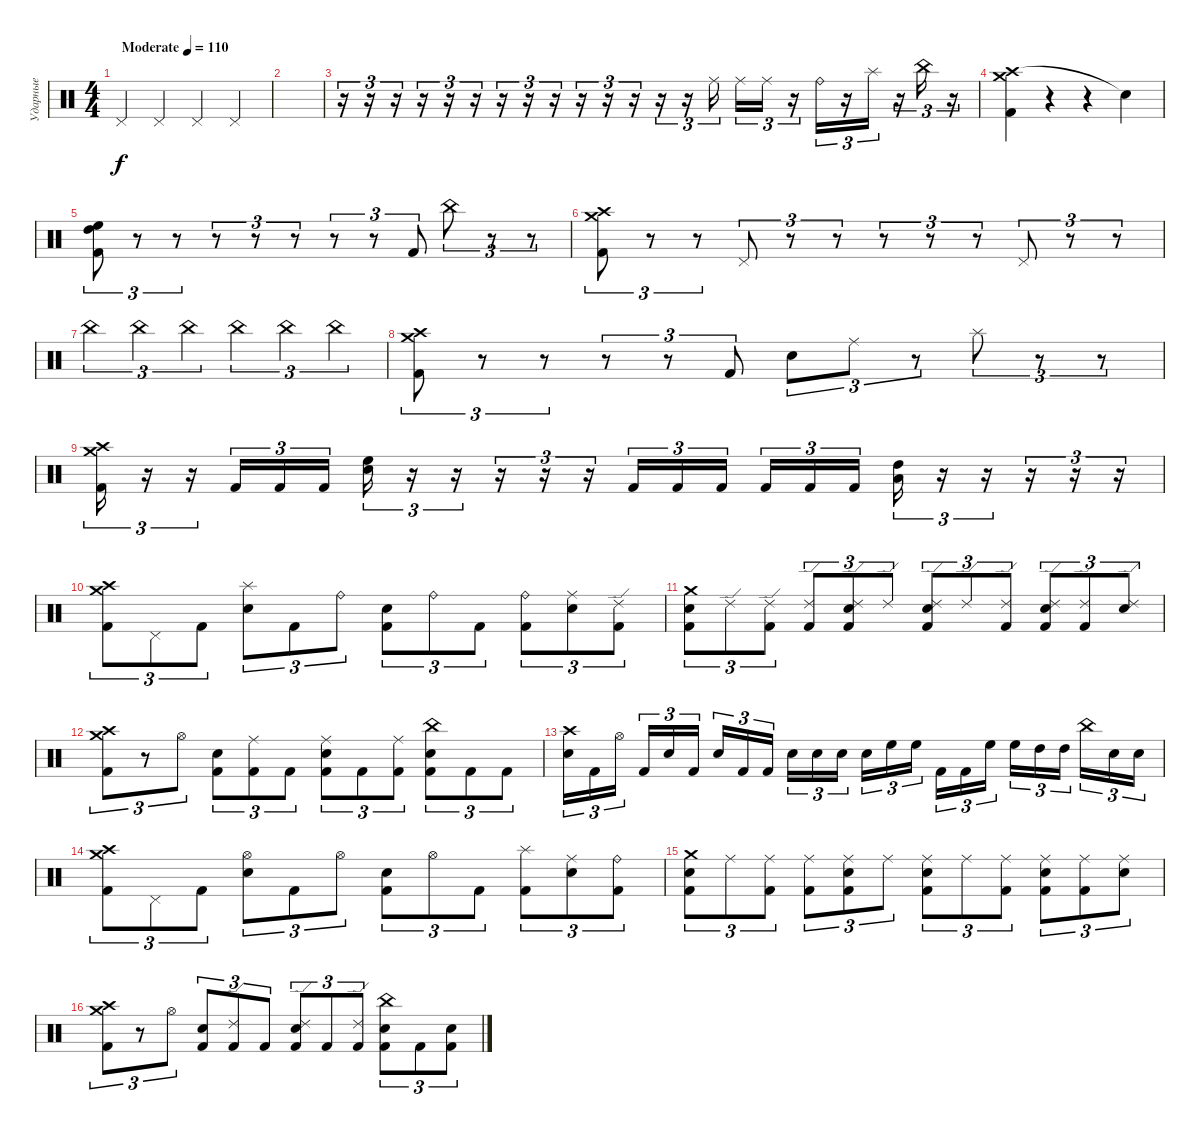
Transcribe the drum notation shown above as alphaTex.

\track ("Ударные" "Ударные") {instrument percussion}
\staff {score}
\articulation defaults
\ts (4 4)
\tempo (110 "Moderate")
\clef neutral
\ks c "Pedal Hi-Hat (hit)".4{dy f} "Pedal Hi-Hat (hit)".4 "Pedal Hi-Hat (hit)".4 "Pedal Hi-Hat (hit)".4
|
|
r.16{tu (3 2)} r.16{tu (3 2)} r.16{tu (3 2)} r.16{tu (3 2)} r.16{tu (3 2)} r.16{tu (3 2)} r.16{tu (3 2)} r.16{tu (3 2)} r.16{tu (3 2)} r.16{tu (3 2)} r.16{tu (3 2)} r.16{tu (3 2)} r.16{tu (3 2)} r.16{tu (3 2)} "Ride (middle)".16{tu (3 2) beam splitsecondary} "Ride (middle)".16{tu (3 2)} "Ride (middle)".16{tu (3 2)} r.16{tu (3 2)} "Ride (bell)".16{tu (3 2)} r.16{tu (3 2)} "Splash (hit)".16{tu (3 2)} r.16{tu (3 2)} "China (hit)".16{tu (3 2)} r.16{tu (3 2)} |
("Crash high (hit)" "Crash medium (hit)" "Kick (hit) 2").4 r.4 r.4 "Snare (hit)"{t}.4 |
("High Tom (hit)" "High Floor Tom (hit)" "Kick (hit) 2").8{tu (3 2)} r.8{tu (3 2)} r.8{tu (3 2)} r.8{tu (3 2)} r.8{tu (3 2)} r.8{tu (3 2)} r.8{tu (3 2)} r.8{tu (3 2)} "Kick (hit) 2".8{tu (3 2)} "China (hit)".8{tu (3 2)} r.8{tu (3 2)} r.8{tu (3 2)} |
("Crash high (hit)" "Crash medium (hit)" "Kick (hit) 2").8{tu (3 2)} r.8{tu (3 2)} r.8{tu (3 2)} "Pedal Hi-Hat (hit)".8{tu (3 2)} r.8{tu (3 2)} r.8{tu (3 2)} r.8{tu (3 2)} r.8{tu (3 2)} r.8{tu (3 2)} "Pedal Hi-Hat (hit)".8{tu (3 2)} r.8{tu (3 2)} r.8{tu (3 2)} |
"China (hit)".4{tu (3 2)} "China (hit)".4{tu (3 2)} "China (hit)".4{tu (3 2)} "China (hit)".4{tu (3 2)} "China (hit)".4{tu (3 2)} "China (hit)".4{tu (3 2)} |
("Crash medium (hit)" "Crash high (hit)" "Kick (hit) 2").8{tu (3 2)} r.8{tu (3 2)} r.8{tu (3 2)} r.8{tu (3 2)} r.8{tu (3 2)} "Kick (hit) 2".8{tu (3 2)} "Electric Snare (hit)".8{tu (3 2)} "Ride (middle)".8{tu (3 2)} r.8{tu (3 2)} "Splash (hit)".8{tu (3 2)} r.8{tu (3 2)} r.8{tu (3 2)} |
("Crash high (hit)" "Crash medium (hit)" "Kick (hit) 2").16{tu (3 2)} r.16{tu (3 2)} r.16{tu (3 2)} "Kick (hit) 2".16{tu (3 2)} "Kick (hit) 2".16{tu (3 2)} "Kick (hit) 2".16{tu (3 2)} ("High Floor Tom (hit)" "Electric Snare (hit)").16{tu (3 2)} r.16{tu (3 2)} r.16{tu (3 2)} r.16{tu (3 2)} r.16{tu (3 2)} r.16{tu (3 2)} "Kick (hit) 2".16{tu (3 2)} "Kick (hit) 2".16{tu (3 2)} "Kick (hit) 2".16{tu (3 2) beam splitsecondary} "Kick (hit) 2".16{tu (3 2)} "Kick (hit) 2".16{tu (3 2)} "Kick (hit) 2".16{tu (3 2)} ("Low Tom (hit)" "High Tom (hit)").16{tu (3 2)} r.16{tu (3 2)} r.16{tu (3 2)} r.16{tu (3 2)} r.16{tu (3 2)} r.16{tu (3 2)} |
("Crash high (hit)" "Crash medium (hit)" "Kick (hit) 2").8{tu (3 2)} "Pedal Hi-Hat (hit)".8{tu (3 2)} "Kick (hit) 2".8{tu (3 2)} ("Splash (hit)" "Electric Snare (hit)").8{tu (3 2)} "Kick (hit) 2".8{tu (3 2)} "Ride (bell)".8{tu (3 2)} ("Electric Snare (hit)" "Kick (hit) 2").8{tu (3 2)} "Ride (bell)".8{tu (3 2)} "Kick (hit) 2".8{tu (3 2)} ("Ride (bell)" "Kick (hit) 2").8{tu (3 2)} ("Ride (middle)" "Electric Snare (hit)").8{tu (3 2)} ("Ride (edge) 2" "Kick (hit) 2").8{tu (3 2)} |
("Crash medium (hit)" "Electric Snare (hit)" "Kick (hit) 2").8{tu (3 2)} "Ride (edge) 2".8{tu (3 2)} ("Ride (edge) 2" "Kick (hit) 2").8{tu (3 2)} ("Ride (edge) 2" "Kick (hit) 2").8{tu (3 2)} ("Ride (edge) 2" "Electric Snare (hit)" "Kick (hit) 2").8{tu (3 2)} "Ride (edge) 2".8{tu (3 2)} ("Ride (edge) 2" "Electric Snare (hit)" "Kick (hit) 2").8{tu (3 2)} "Ride (edge) 2".8{tu (3 2)} ("Ride (edge) 2" "Kick (hit) 2").8{tu (3 2)} ("Ride (edge) 2" "Electric Snare (hit)" "Kick (hit) 2").8{tu (3 2)} ("Ride (edge) 2" "Kick (hit) 2").8{tu (3 2)} ("Ride (edge) 2" "Electric Snare (hit)").8{tu (3 2)} |
("Crash medium (hit)" "Crash high (hit)" "Kick (hit) 2").8{tu (3 2)} r.8{tu (3 2)} "Hi-Hat (open)".8{tu (3 2)} ("Electric Snare (hit)" "Kick (hit) 2").8{tu (3 2)} ("Ride (middle)" "Kick (hit) 2").8{tu (3 2)} "Kick (hit) 2".8{tu (3 2)} ("Ride (middle)" "Electric Snare (hit)" "Kick (hit) 2").8{tu (3 2)} "Kick (hit) 2".8{tu (3 2)} ("Ride (middle)" "Kick (hit) 2").8{tu (3 2)} ("China (hit)" "Electric Snare (hit)" "Kick (hit) 2").8{tu (3 2)} "Kick (hit) 2".8{tu (3 2)} "Kick (hit) 2".8{tu (3 2)} |
("Crash high (hit)" "Electric Snare (hit)").16{tu (3 2)} "Kick (hit) 2".16{tu (3 2)} "Hi-Hat (open)".16{tu (3 2) beam splitsecondary} "Kick (hit) 2".16{tu (3 2)} "Electric Snare (hit)".16{tu (3 2)} "Kick (hit) 2".16{tu (3 2)} "Electric Snare (hit)".16{tu (3 2)} "Kick (hit) 2".16{tu (3 2)} "Kick (hit) 2".16{tu (3 2) beam splitsecondary} "Electric Snare (hit)".16{tu (3 2)} "Electric Snare (hit)".16{tu (3 2)} "Electric Snare (hit)".16{tu (3 2)} "Electric Snare (hit)".16{tu (3 2)} "High Floor Tom (hit)".16{tu (3 2)} "High Floor Tom (hit)".16{tu (3 2) beam splitsecondary} "Kick (hit) 2".16{tu (3 2)} "Kick (hit) 2".16{tu (3 2)} "High Floor Tom (hit)".16{tu (3 2)} "High Floor Tom (hit)".16{tu (3 2)} "High Tom (hit)".16{tu (3 2)} "High Tom (hit)".16{tu (3 2) beam splitsecondary} "China (hit)".16{tu (3 2)} "Electric Snare (hit)".16{tu (3 2)} "Electric Snare (hit)".16{tu (3 2)} |
("Crash high (hit)" "Crash medium (hit)" "Kick (hit) 2").8{tu (3 2)} "Pedal Hi-Hat (hit)".8{tu (3 2)} "Kick (hit) 2".8{tu (3 2)} ("Hi-Hat (open)" "Electric Snare (hit)").8{tu (3 2)} "Kick (hit) 2".8{tu (3 2)} "Hi-Hat (open)".8{tu (3 2)} ("Electric Snare (hit)" "Kick (hit) 2").8{tu (3 2)} "Hi-Hat (open)".8{tu (3 2)} "Kick (hit) 2".8{tu (3 2)} ("Splash (hit)" "Kick (hit) 2").8{tu (3 2)} ("Ride (middle)" "Electric Snare (hit)").8{tu (3 2)} ("Ride (bell)" "Kick (hit) 2").8{tu (3 2)} |
("Crash medium (hit)" "Electric Snare (hit)" "Kick (hit) 2").8{tu (3 2)} "Ride (middle)".8{tu (3 2)} ("Ride (middle)" "Kick (hit) 2").8{tu (3 2)} ("Ride (middle)" "Kick (hit) 2").8{tu (3 2)} ("Ride (middle)" "Electric Snare (hit)" "Kick (hit) 2").8{tu (3 2)} "Ride (middle)".8{tu (3 2)} ("Ride (middle)" "Electric Snare (hit)" "Kick (hit) 2").8{tu (3 2)} "Ride (middle)".8{tu (3 2)} ("Ride (middle)" "Kick (hit) 2").8{tu (3 2)} ("Ride (middle)" "Electric Snare (hit)" "Kick (hit) 2").8{tu (3 2)} ("Ride (middle)" "Kick (hit) 2").8{tu (3 2)} ("Ride (middle)" "Electric Snare (hit)").8{tu (3 2)} |
("Crash medium (hit)" "Crash high (hit)" "Kick (hit) 2").8{tu (3 2)} r.8{tu (3 2)} "Hi-Hat (open)".8{tu (3 2)} ("Electric Snare (hit)" "Kick (hit) 2").8{tu (3 2)} ("Ride (edge) 2" "Kick (hit) 2").8{tu (3 2)} "Kick (hit) 2".8{tu (3 2)} ("Ride (edge) 2" "Electric Snare (hit)" "Kick (hit) 2").8{tu (3 2)} "Kick (hit) 2".8{tu (3 2)} ("Ride (edge) 2" "Kick (hit) 2").8{tu (3 2)} ("China (hit)" "Electric Snare (hit)" "Kick (hit) 2").8{tu (3 2)} "Kick (hit) 2".8{tu (3 2)} ("Electric Snare (hit)" "Kick (hit) 2").8{tu (3 2)}
